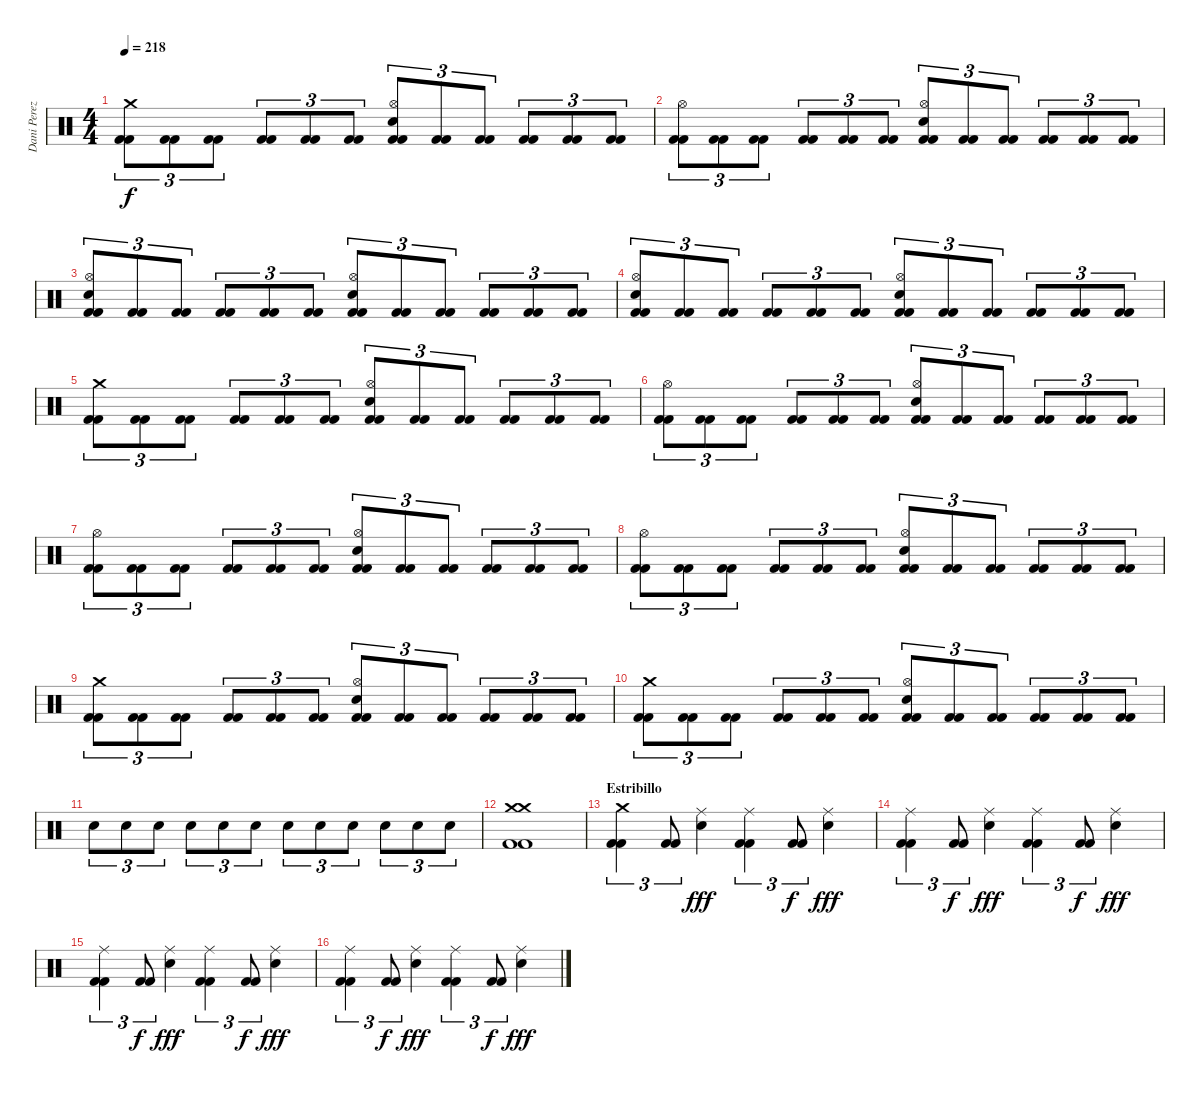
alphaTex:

\track ("Dani Perez" "Dani Perez") {instrument percussion}
\staff {score}
\articulation defaults
\ts (4 4)
\tempo 218
\clef neutral
\ks c
("Crash medium (hit)" "Kick (hit) 2" "Kick (hit) 2").8{tu (3 2) dy f} ("Kick (hit) 2" "Kick (hit) 2").8{tu (3 2)} ("Kick (hit) 2" "Kick (hit) 2").8{tu (3 2)} ("Kick (hit) 2" "Kick (hit) 2").8{tu (3 2)} ("Kick (hit) 2" "Kick (hit) 2").8{tu (3 2)} ("Kick (hit) 2" "Kick (hit) 2").8{tu (3 2)} ("Hi-Hat (open)" "Snare (hit) 2" "Kick (hit) 2" "Kick (hit) 2").8{tu (3 2)} ("Kick (hit) 2" "Kick (hit) 2").8{tu (3 2)} ("Kick (hit) 2" "Kick (hit) 2").8{tu (3 2)} ("Kick (hit) 2" "Kick (hit) 2").8{tu (3 2)} ("Kick (hit) 2" "Kick (hit) 2").8{tu (3 2)} ("Kick (hit) 2" "Kick (hit) 2").8{tu (3 2)} |
("Hi-Hat (open)" "Kick (hit) 2" "Kick (hit) 2").8{tu (3 2)} ("Kick (hit) 2" "Kick (hit) 2").8{tu (3 2)} ("Kick (hit) 2" "Kick (hit) 2").8{tu (3 2)} ("Kick (hit) 2" "Kick (hit) 2").8{tu (3 2)} ("Kick (hit) 2" "Kick (hit) 2").8{tu (3 2)} ("Kick (hit) 2" "Kick (hit) 2").8{tu (3 2)} ("Hi-Hat (open)" "Snare (hit) 2" "Kick (hit) 2" "Kick (hit) 2").8{tu (3 2)} ("Kick (hit) 2" "Kick (hit) 2").8{tu (3 2)} ("Kick (hit) 2" "Kick (hit) 2").8{tu (3 2)} ("Kick (hit) 2" "Kick (hit) 2").8{tu (3 2)} ("Kick (hit) 2" "Kick (hit) 2").8{tu (3 2)} ("Kick (hit) 2" "Kick (hit) 2").8{tu (3 2)} |
("Hi-Hat (open)" "Snare (hit) 2" "Kick (hit) 2" "Kick (hit) 2").8{tu (3 2)} ("Kick (hit) 2" "Kick (hit) 2").8{tu (3 2)} ("Kick (hit) 2" "Kick (hit) 2").8{tu (3 2)} ("Kick (hit) 2" "Kick (hit) 2").8{tu (3 2)} ("Kick (hit) 2" "Kick (hit) 2").8{tu (3 2)} ("Kick (hit) 2" "Kick (hit) 2").8{tu (3 2)} ("Hi-Hat (open)" "Snare (hit) 2" "Kick (hit) 2" "Kick (hit) 2").8{tu (3 2)} ("Kick (hit) 2" "Kick (hit) 2").8{tu (3 2)} ("Kick (hit) 2" "Kick (hit) 2").8{tu (3 2)} ("Kick (hit) 2" "Kick (hit) 2").8{tu (3 2)} ("Kick (hit) 2" "Kick (hit) 2").8{tu (3 2)} ("Kick (hit) 2" "Kick (hit) 2").8{tu (3 2)} |
("Hi-Hat (open)" "Snare (hit) 2" "Kick (hit) 2" "Kick (hit) 2").8{tu (3 2)} ("Kick (hit) 2" "Kick (hit) 2").8{tu (3 2)} ("Kick (hit) 2" "Kick (hit) 2").8{tu (3 2)} ("Kick (hit) 2" "Kick (hit) 2").8{tu (3 2)} ("Kick (hit) 2" "Kick (hit) 2").8{tu (3 2)} ("Kick (hit) 2" "Kick (hit) 2").8{tu (3 2)} ("Hi-Hat (open)" "Snare (hit) 2" "Kick (hit) 2" "Kick (hit) 2").8{tu (3 2)} ("Kick (hit) 2" "Kick (hit) 2").8{tu (3 2)} ("Kick (hit) 2" "Kick (hit) 2").8{tu (3 2)} ("Kick (hit) 2" "Kick (hit) 2").8{tu (3 2)} ("Kick (hit) 2" "Kick (hit) 2").8{tu (3 2)} ("Kick (hit) 2" "Kick (hit) 2").8{tu (3 2)} |
("Crash medium (hit)" "Kick (hit) 2" "Kick (hit) 2").8{tu (3 2)} ("Kick (hit) 2" "Kick (hit) 2").8{tu (3 2)} ("Kick (hit) 2" "Kick (hit) 2").8{tu (3 2)} ("Kick (hit) 2" "Kick (hit) 2").8{tu (3 2)} ("Kick (hit) 2" "Kick (hit) 2").8{tu (3 2)} ("Kick (hit) 2" "Kick (hit) 2").8{tu (3 2)} ("Hi-Hat (open)" "Snare (hit) 2" "Kick (hit) 2" "Kick (hit) 2").8{tu (3 2)} ("Kick (hit) 2" "Kick (hit) 2").8{tu (3 2)} ("Kick (hit) 2" "Kick (hit) 2").8{tu (3 2)} ("Kick (hit) 2" "Kick (hit) 2").8{tu (3 2)} ("Kick (hit) 2" "Kick (hit) 2").8{tu (3 2)} ("Kick (hit) 2" "Kick (hit) 2").8{tu (3 2)} |
("Hi-Hat (open)" "Kick (hit) 2" "Kick (hit) 2").8{tu (3 2)} ("Kick (hit) 2" "Kick (hit) 2").8{tu (3 2)} ("Kick (hit) 2" "Kick (hit) 2").8{tu (3 2)} ("Kick (hit) 2" "Kick (hit) 2").8{tu (3 2)} ("Kick (hit) 2" "Kick (hit) 2").8{tu (3 2)} ("Kick (hit) 2" "Kick (hit) 2").8{tu (3 2)} ("Hi-Hat (open)" "Snare (hit) 2" "Kick (hit) 2" "Kick (hit) 2").8{tu (3 2)} ("Kick (hit) 2" "Kick (hit) 2").8{tu (3 2)} ("Kick (hit) 2" "Kick (hit) 2").8{tu (3 2)} ("Kick (hit) 2" "Kick (hit) 2").8{tu (3 2)} ("Kick (hit) 2" "Kick (hit) 2").8{tu (3 2)} ("Kick (hit) 2" "Kick (hit) 2").8{tu (3 2)} |
("Hi-Hat (open)" "Kick (hit) 2" "Kick (hit) 2").8{tu (3 2)} ("Kick (hit) 2" "Kick (hit) 2").8{tu (3 2)} ("Kick (hit) 2" "Kick (hit) 2").8{tu (3 2)} ("Kick (hit) 2" "Kick (hit) 2").8{tu (3 2)} ("Kick (hit) 2" "Kick (hit) 2").8{tu (3 2)} ("Kick (hit) 2" "Kick (hit) 2").8{tu (3 2)} ("Hi-Hat (open)" "Snare (hit) 2" "Kick (hit) 2" "Kick (hit) 2").8{tu (3 2)} ("Kick (hit) 2" "Kick (hit) 2").8{tu (3 2)} ("Kick (hit) 2" "Kick (hit) 2").8{tu (3 2)} ("Kick (hit) 2" "Kick (hit) 2").8{tu (3 2)} ("Kick (hit) 2" "Kick (hit) 2").8{tu (3 2)} ("Kick (hit) 2" "Kick (hit) 2").8{tu (3 2)} |
("Hi-Hat (open)" "Kick (hit) 2" "Kick (hit) 2").8{tu (3 2)} ("Kick (hit) 2" "Kick (hit) 2").8{tu (3 2)} ("Kick (hit) 2" "Kick (hit) 2").8{tu (3 2)} ("Kick (hit) 2" "Kick (hit) 2").8{tu (3 2)} ("Kick (hit) 2" "Kick (hit) 2").8{tu (3 2)} ("Kick (hit) 2" "Kick (hit) 2").8{tu (3 2)} ("Hi-Hat (open)" "Snare (hit) 2" "Kick (hit) 2" "Kick (hit) 2").8{tu (3 2)} ("Kick (hit) 2" "Kick (hit) 2").8{tu (3 2)} ("Kick (hit) 2" "Kick (hit) 2").8{tu (3 2)} ("Kick (hit) 2" "Kick (hit) 2").8{tu (3 2)} ("Kick (hit) 2" "Kick (hit) 2").8{tu (3 2)} ("Kick (hit) 2" "Kick (hit) 2").8{tu (3 2)} |
("Crash medium (hit)" "Kick (hit) 2" "Kick (hit) 2").8{tu (3 2)} ("Kick (hit) 2" "Kick (hit) 2").8{tu (3 2)} ("Kick (hit) 2" "Kick (hit) 2").8{tu (3 2)} ("Kick (hit) 2" "Kick (hit) 2").8{tu (3 2)} ("Kick (hit) 2" "Kick (hit) 2").8{tu (3 2)} ("Kick (hit) 2" "Kick (hit) 2").8{tu (3 2)} ("Hi-Hat (open)" "Snare (hit) 2" "Kick (hit) 2" "Kick (hit) 2").8{tu (3 2)} ("Kick (hit) 2" "Kick (hit) 2").8{tu (3 2)} ("Kick (hit) 2" "Kick (hit) 2").8{tu (3 2)} ("Kick (hit) 2" "Kick (hit) 2").8{tu (3 2)} ("Kick (hit) 2" "Kick (hit) 2").8{tu (3 2)} ("Kick (hit) 2" "Kick (hit) 2").8{tu (3 2)} |
("Crash medium (hit)" "Kick (hit) 2" "Kick (hit) 2").8{tu (3 2)} ("Kick (hit) 2" "Kick (hit) 2").8{tu (3 2)} ("Kick (hit) 2" "Kick (hit) 2").8{tu (3 2)} ("Kick (hit) 2" "Kick (hit) 2").8{tu (3 2)} ("Kick (hit) 2" "Kick (hit) 2").8{tu (3 2)} ("Kick (hit) 2" "Kick (hit) 2").8{tu (3 2)} ("Hi-Hat (open)" "Snare (hit) 2" "Kick (hit) 2" "Kick (hit) 2").8{tu (3 2)} ("Kick (hit) 2" "Kick (hit) 2").8{tu (3 2)} ("Kick (hit) 2" "Kick (hit) 2").8{tu (3 2)} ("Kick (hit) 2" "Kick (hit) 2").8{tu (3 2)} ("Kick (hit) 2" "Kick (hit) 2").8{tu (3 2)} ("Kick (hit) 2" "Kick (hit) 2").8{tu (3 2)} |
"Snare (hit) 2".8{tu (3 2)} "Snare (hit) 2".8{tu (3 2)} "Snare (hit) 2".8{tu (3 2)} "Snare (hit) 2".8{tu (3 2)} "Snare (hit) 2".8{tu (3 2)} "Snare (hit) 2".8{tu (3 2)} "Snare (hit) 2".8{tu (3 2)} "Snare (hit) 2".8{tu (3 2)} "Snare (hit) 2".8{tu (3 2)} "Snare (hit) 2".8{tu (3 2)} "Snare (hit) 2".8{tu (3 2)} "Snare (hit) 2".8{tu (3 2)} |
("Crash medium (hit)" "Crash medium (hit)" "Kick (hit) 2" "Kick (hit) 2").1 |
\section ("" "Estribillo")
("Crash medium (hit)" "Kick (hit) 2" "Kick (hit) 2").4{tu (3 2)} ("Kick (hit) 2" "Kick (hit) 2").8{tu (3 2)} ("Ride (middle)" "Snare (hit) 2").4{dy fff} ("Ride (middle)" "Kick (hit) 2" "Kick (hit) 2").4{tu (3 2)} ("Kick (hit) 2" "Kick (hit) 2").8{tu (3 2) dy f} ("Ride (middle)" "Snare (hit) 2").4{dy fff} |
("Ride (middle)" "Kick (hit) 2" "Kick (hit) 2").4{tu (3 2)} ("Kick (hit) 2" "Kick (hit) 2").8{tu (3 2) dy f} ("Ride (middle)" "Snare (hit) 2").4{dy fff} ("Ride (middle)" "Kick (hit) 2" "Kick (hit) 2").4{tu (3 2)} ("Kick (hit) 2" "Kick (hit) 2").8{tu (3 2) dy f} ("Ride (middle)" "Snare (hit) 2").4{dy fff} |
("Ride (middle)" "Kick (hit) 2" "Kick (hit) 2").4{tu (3 2)} ("Kick (hit) 2" "Kick (hit) 2").8{tu (3 2) dy f} ("Ride (middle)" "Snare (hit) 2").4{dy fff} ("Ride (middle)" "Kick (hit) 2" "Kick (hit) 2").4{tu (3 2)} ("Kick (hit) 2" "Kick (hit) 2").8{tu (3 2) dy f} ("Ride (middle)" "Snare (hit) 2").4{dy fff} |
("Ride (middle)" "Kick (hit) 2" "Kick (hit) 2").4{tu (3 2)} ("Kick (hit) 2" "Kick (hit) 2").8{tu (3 2) dy f} ("Ride (middle)" "Snare (hit) 2").4{dy fff} ("Ride (middle)" "Kick (hit) 2" "Kick (hit) 2").4{tu (3 2)} ("Kick (hit) 2" "Kick (hit) 2").8{tu (3 2) dy f} ("Ride (middle)" "Snare (hit) 2").4{dy fff}
